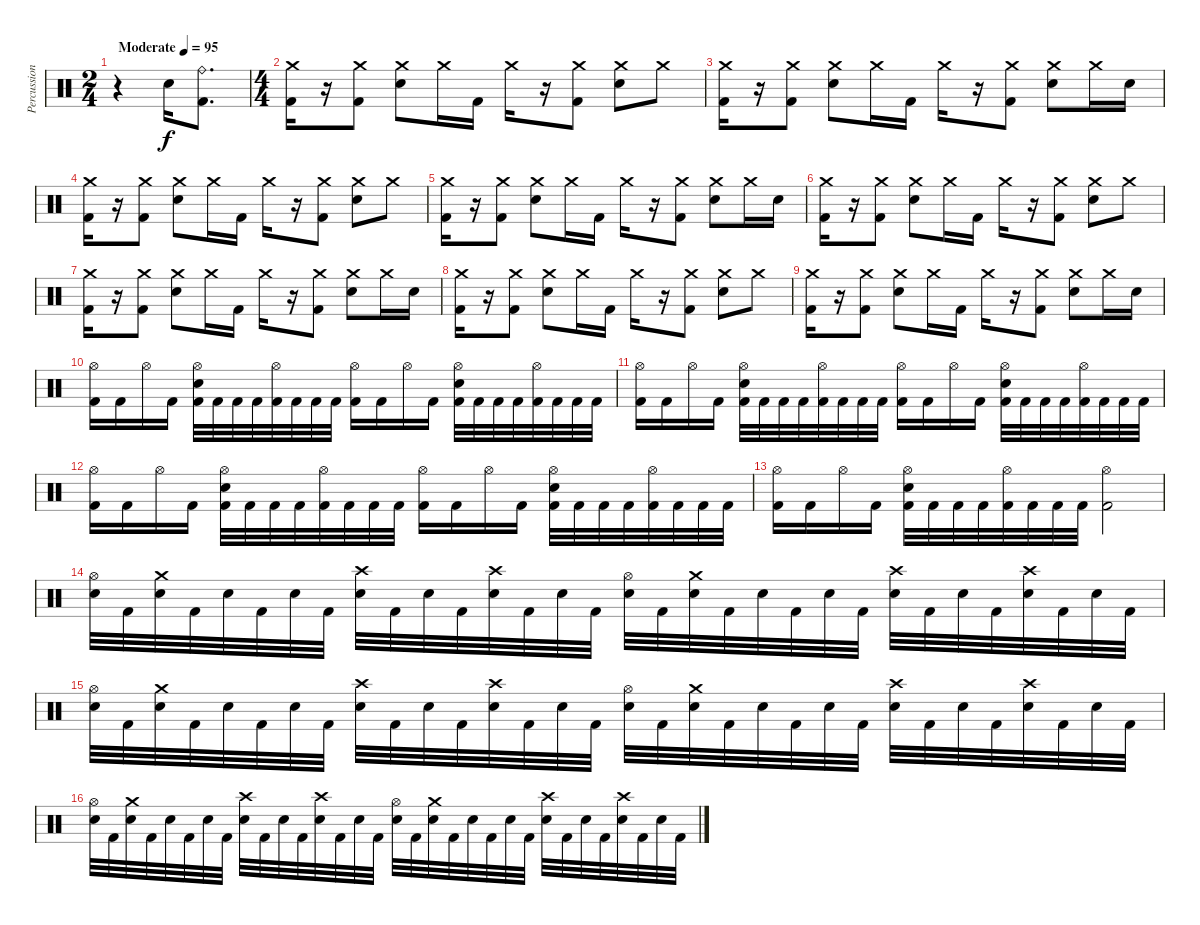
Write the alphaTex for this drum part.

\track ("Percussion" "Percussion") {instrument percussion}
\staff {score}
\articulation defaults
\ts (2 4)
\tempo (95 "Moderate")
\clef neutral
\ks c
r.4{dy f} "Electric Snare (hit)".16 ("Ride (bell)" "Kick (hit) 2").8{d} |
\ts (4 4)
("Crash medium (hit)" "Kick (hit) 2").16 r.16 ("Crash medium (hit)" "Kick (hit) 2").8 ("Crash medium (hit)" "Electric Snare (hit)").8 "Crash medium (hit)".16 "Kick (hit) 2".16 "Crash medium (hit)".16 r.16 ("Crash medium (hit)" "Kick (hit) 2").8 ("Crash medium (hit)" "Electric Snare (hit)").8 "Crash medium (hit)".8 |
("Crash medium (hit)" "Kick (hit) 2").16 r.16 ("Crash medium (hit)" "Kick (hit) 2").8 ("Crash medium (hit)" "Electric Snare (hit)").8 "Crash medium (hit)".16 "Kick (hit) 2".16 "Crash medium (hit)".16 r.16 ("Crash medium (hit)" "Kick (hit) 2").8 ("Crash medium (hit)" "Electric Snare (hit)").8 "Crash medium (hit)".16 "Electric Snare (hit)".16 |
("Crash medium (hit)" "Kick (hit) 2").16 r.16 ("Crash medium (hit)" "Kick (hit) 2").8 ("Crash medium (hit)" "Electric Snare (hit)").8 "Crash medium (hit)".16 "Kick (hit) 2".16 "Crash medium (hit)".16 r.16 ("Crash medium (hit)" "Kick (hit) 2").8 ("Crash medium (hit)" "Electric Snare (hit)").8 "Crash medium (hit)".8 |
("Crash medium (hit)" "Kick (hit) 2").16 r.16 ("Crash medium (hit)" "Kick (hit) 2").8 ("Crash medium (hit)" "Electric Snare (hit)").8 "Crash medium (hit)".16 "Kick (hit) 2".16 "Crash medium (hit)".16 r.16 ("Crash medium (hit)" "Kick (hit) 2").8 ("Crash medium (hit)" "Electric Snare (hit)").8 "Crash medium (hit)".16 "Electric Snare (hit)".16 |
("Crash medium (hit)" "Kick (hit) 2").16 r.16 ("Crash medium (hit)" "Kick (hit) 2").8 ("Crash medium (hit)" "Electric Snare (hit)").8 "Crash medium (hit)".16 "Kick (hit) 2".16 "Crash medium (hit)".16 r.16 ("Crash medium (hit)" "Kick (hit) 2").8 ("Crash medium (hit)" "Electric Snare (hit)").8 "Crash medium (hit)".8 |
("Crash medium (hit)" "Kick (hit) 2").16 r.16 ("Crash medium (hit)" "Kick (hit) 2").8 ("Crash medium (hit)" "Electric Snare (hit)").8 "Crash medium (hit)".16 "Kick (hit) 2".16 "Crash medium (hit)".16 r.16 ("Crash medium (hit)" "Kick (hit) 2").8 ("Crash medium (hit)" "Electric Snare (hit)").8 "Crash medium (hit)".16 "Electric Snare (hit)".16 |
("Crash medium (hit)" "Kick (hit) 2").16 r.16 ("Crash medium (hit)" "Kick (hit) 2").8 ("Crash medium (hit)" "Electric Snare (hit)").8 "Crash medium (hit)".16 "Kick (hit) 2".16 "Crash medium (hit)".16 r.16 ("Crash medium (hit)" "Kick (hit) 2").8 ("Crash medium (hit)" "Electric Snare (hit)").8 "Crash medium (hit)".8 |
("Crash medium (hit)" "Kick (hit) 2").16 r.16 ("Crash medium (hit)" "Kick (hit) 2").8 ("Crash medium (hit)" "Electric Snare (hit)").8 "Crash medium (hit)".16 "Kick (hit) 2".16 "Crash medium (hit)".16 r.16 ("Crash medium (hit)" "Kick (hit) 2").8 ("Crash medium (hit)" "Electric Snare (hit)").8 "Crash medium (hit)".16 "Electric Snare (hit)".16 |
("Hi-Hat (open)" "Kick (hit) 2").16 "Kick (hit) 2".16 "Hi-Hat (open)".16 "Kick (hit) 2".16 ("Hi-Hat (open)" "Electric Snare (hit)" "Kick (hit) 2").32 "Kick (hit) 2".32 "Kick (hit) 2".32 "Kick (hit) 2".32 ("Hi-Hat (open)" "Kick (hit) 2").32 "Kick (hit) 2".32 "Kick (hit) 2".32 "Kick (hit) 2".32 ("Hi-Hat (open)" "Kick (hit) 2").16 "Kick (hit) 2".16 "Hi-Hat (open)".16 "Kick (hit) 2".16 ("Hi-Hat (open)" "Electric Snare (hit)" "Kick (hit) 2").32 "Kick (hit) 2".32 "Kick (hit) 2".32 "Kick (hit) 2".32 ("Hi-Hat (open)" "Kick (hit) 2").32 "Kick (hit) 2".32 "Kick (hit) 2".32 "Kick (hit) 2".32 |
("Hi-Hat (open)" "Kick (hit) 2").16 "Kick (hit) 2".16 "Hi-Hat (open)".16 "Kick (hit) 2".16 ("Hi-Hat (open)" "Electric Snare (hit)" "Kick (hit) 2").32 "Kick (hit) 2".32 "Kick (hit) 2".32 "Kick (hit) 2".32 ("Hi-Hat (open)" "Kick (hit) 2").32 "Kick (hit) 2".32 "Kick (hit) 2".32 "Kick (hit) 2".32 ("Hi-Hat (open)" "Kick (hit) 2").16 "Kick (hit) 2".16 "Hi-Hat (open)".16 "Kick (hit) 2".16 ("Hi-Hat (open)" "Electric Snare (hit)" "Kick (hit) 2").32 "Kick (hit) 2".32 "Kick (hit) 2".32 "Kick (hit) 2".32 ("Hi-Hat (open)" "Kick (hit) 2").32 "Kick (hit) 2".32 "Kick (hit) 2".32 "Kick (hit) 2".32 |
("Hi-Hat (open)" "Kick (hit) 2").16 "Kick (hit) 2".16 "Hi-Hat (open)".16 "Kick (hit) 2".16 ("Hi-Hat (open)" "Electric Snare (hit)" "Kick (hit) 2").32 "Kick (hit) 2".32 "Kick (hit) 2".32 "Kick (hit) 2".32 ("Hi-Hat (open)" "Kick (hit) 2").32 "Kick (hit) 2".32 "Kick (hit) 2".32 "Kick (hit) 2".32 ("Hi-Hat (open)" "Kick (hit) 2").16 "Kick (hit) 2".16 "Hi-Hat (open)".16 "Kick (hit) 2".16 ("Hi-Hat (open)" "Electric Snare (hit)" "Kick (hit) 2").32 "Kick (hit) 2".32 "Kick (hit) 2".32 "Kick (hit) 2".32 ("Hi-Hat (open)" "Kick (hit) 2").32 "Kick (hit) 2".32 "Kick (hit) 2".32 "Kick (hit) 2".32 |
("Hi-Hat (open)" "Kick (hit) 2").16 "Kick (hit) 2".16 "Hi-Hat (open)".16 "Kick (hit) 2".16 ("Hi-Hat (open)" "Electric Snare (hit)" "Kick (hit) 2").32 "Kick (hit) 2".32 "Kick (hit) 2".32 "Kick (hit) 2".32 ("Hi-Hat (open)" "Kick (hit) 2").32 "Kick (hit) 2".32 "Kick (hit) 2".32 "Kick (hit) 2".32 ("Hi-Hat (open)" "Kick (hit) 2").2 |
("Hi-Hat (open)" "Electric Snare (hit)").32 "Kick (hit) 2".32 ("Crash medium (hit)" "Electric Snare (hit)").32 "Kick (hit) 2".32 "Electric Snare (hit)".32 "Kick (hit) 2".32 "Electric Snare (hit)".32 "Kick (hit) 2".32 ("Crash high (hit)" "Electric Snare (hit)").32 "Kick (hit) 2".32 "Electric Snare (hit)".32 "Kick (hit) 2".32 ("Crash high (hit)" "Electric Snare (hit)").32 "Kick (hit) 2".32 "Electric Snare (hit)".32 "Kick (hit) 2".32 ("Hi-Hat (open)" "Electric Snare (hit)").32 "Kick (hit) 2".32 ("Crash medium (hit)" "Electric Snare (hit)").32 "Kick (hit) 2".32 "Electric Snare (hit)".32 "Kick (hit) 2".32 "Electric Snare (hit)".32 "Kick (hit) 2".32 ("Crash high (hit)" "Electric Snare (hit)").32 "Kick (hit) 2".32 "Electric Snare (hit)".32 "Kick (hit) 2".32 ("Crash high (hit)" "Electric Snare (hit)").32 "Kick (hit) 2".32 "Electric Snare (hit)".32 "Kick (hit) 2".32 |
("Hi-Hat (open)" "Electric Snare (hit)").32 "Kick (hit) 2".32 ("Crash medium (hit)" "Electric Snare (hit)").32 "Kick (hit) 2".32 "Electric Snare (hit)".32 "Kick (hit) 2".32 "Electric Snare (hit)".32 "Kick (hit) 2".32 ("Crash high (hit)" "Electric Snare (hit)").32 "Kick (hit) 2".32 "Electric Snare (hit)".32 "Kick (hit) 2".32 ("Crash high (hit)" "Electric Snare (hit)").32 "Kick (hit) 2".32 "Electric Snare (hit)".32 "Kick (hit) 2".32 ("Hi-Hat (open)" "Electric Snare (hit)").32 "Kick (hit) 2".32 ("Crash medium (hit)" "Electric Snare (hit)").32 "Kick (hit) 2".32 "Electric Snare (hit)".32 "Kick (hit) 2".32 "Electric Snare (hit)".32 "Kick (hit) 2".32 ("Crash high (hit)" "Electric Snare (hit)").32 "Kick (hit) 2".32 "Electric Snare (hit)".32 "Kick (hit) 2".32 ("Crash high (hit)" "Electric Snare (hit)").32 "Kick (hit) 2".32 "Electric Snare (hit)".32 "Kick (hit) 2".32 |
("Hi-Hat (open)" "Electric Snare (hit)").32 "Kick (hit) 2".32 ("Crash medium (hit)" "Electric Snare (hit)").32 "Kick (hit) 2".32 "Electric Snare (hit)".32 "Kick (hit) 2".32 "Electric Snare (hit)".32 "Kick (hit) 2".32 ("Crash high (hit)" "Electric Snare (hit)").32 "Kick (hit) 2".32 "Electric Snare (hit)".32 "Kick (hit) 2".32 ("Crash high (hit)" "Electric Snare (hit)").32 "Kick (hit) 2".32 "Electric Snare (hit)".32 "Kick (hit) 2".32 ("Hi-Hat (open)" "Electric Snare (hit)").32 "Kick (hit) 2".32 ("Crash medium (hit)" "Electric Snare (hit)").32 "Kick (hit) 2".32 "Electric Snare (hit)".32 "Kick (hit) 2".32 "Electric Snare (hit)".32 "Kick (hit) 2".32 ("Crash high (hit)" "Electric Snare (hit)").32 "Kick (hit) 2".32 "Electric Snare (hit)".32 "Kick (hit) 2".32 ("Crash high (hit)" "Electric Snare (hit)").32 "Kick (hit) 2".32 "Electric Snare (hit)".32 "Kick (hit) 2".32
